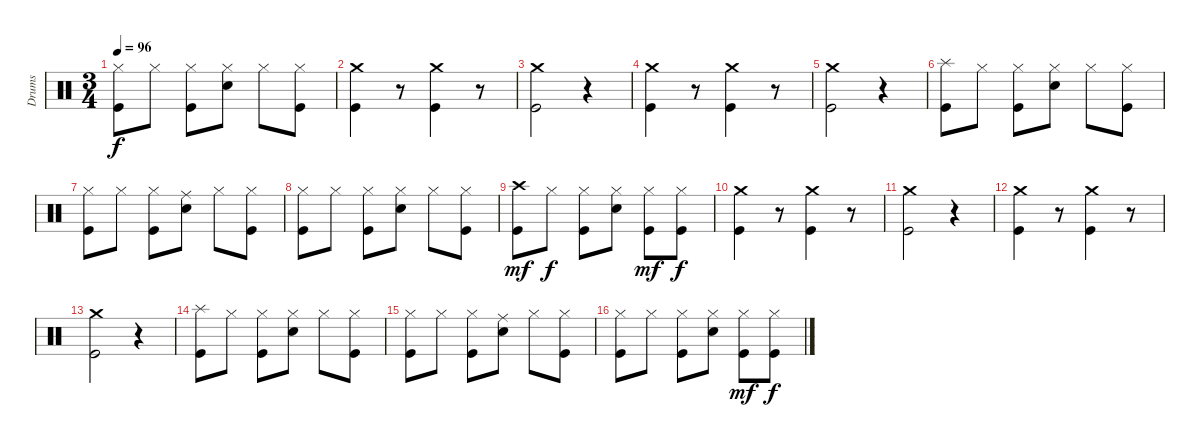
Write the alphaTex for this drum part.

\track ("Drums" "Drums") {instrument percussion}
\staff {score}
\articulation defaults
\ts (3 4)
\tempo 96
\clef neutral
\ks c
("Hi-Hat (closed)" "Kick (hit)").8{dy f} "Hi-Hat (closed)".8 ("Hi-Hat (closed)" "Kick (hit)").8 ("Hi-Hat (closed)" "Snare (hit) 2").8 "Hi-Hat (closed)".8 ("Hi-Hat (closed)" "Kick (hit)").8 |
("Crash medium (hit)" "Kick (hit)").4 r.8 ("Crash medium (hit)" "Kick (hit)").4 r.8 |
("Crash medium (hit)" "Kick (hit)").2 r.4 |
("Crash medium (hit)" "Kick (hit)").4 r.8 ("Crash medium (hit)" "Kick (hit)").4 r.8 |
("Crash medium (hit)" "Kick (hit)").2 r.4 |
("Splash (hit)" "Kick (hit)").8 "Hi-Hat (closed)".8 ("Hi-Hat (closed)" "Kick (hit)").8 ("Hi-Hat (closed)" "Snare (hit) 2").8 "Hi-Hat (closed)".8 ("Hi-Hat (closed)" "Kick (hit)").8 |
("Hi-Hat (closed)" "Kick (hit)").8 "Hi-Hat (closed)".8 ("Hi-Hat (closed)" "Kick (hit)").8 ("Ride (middle)" "Snare (hit) 2").8 "Hi-Hat (closed)".8 ("Hi-Hat (closed)" "Kick (hit)").8 |
("Hi-Hat (closed)" "Kick (hit)").8 "Hi-Hat (closed)".8 ("Hi-Hat (closed)" "Kick (hit)").8 ("Hi-Hat (closed)" "Snare (hit) 2").8 "Hi-Hat (closed)".8 ("Hi-Hat (closed)" "Kick (hit)").8 |
("Crash high (hit)" "Kick (hit)").8{dy mf} "Hi-Hat (closed)".8{dy f} ("Hi-Hat (closed)" "Kick (hit)").8 ("Hi-Hat (closed)" "Snare (hit) 2").8 ("Hi-Hat (closed)" "Kick (hit)").8{dy mf} ("Hi-Hat (closed)" "Kick (hit)").8{dy f} |
("Crash medium (hit)" "Kick (hit)").4 r.8 ("Crash medium (hit)" "Kick (hit)").4 r.8 |
("Crash medium (hit)" "Kick (hit)").2 r.4 |
("Crash medium (hit)" "Kick (hit)").4 r.8 ("Crash medium (hit)" "Kick (hit)").4 r.8 |
("Crash medium (hit)" "Kick (hit)").2 r.4 |
("Splash (hit)" "Kick (hit)").8 "Hi-Hat (closed)".8 ("Hi-Hat (closed)" "Kick (hit)").8 ("Hi-Hat (closed)" "Snare (hit) 2").8 "Hi-Hat (closed)".8 ("Hi-Hat (closed)" "Kick (hit)").8 |
("Hi-Hat (closed)" "Kick (hit)").8 "Hi-Hat (closed)".8 ("Hi-Hat (closed)" "Kick (hit)").8 ("Ride (middle)" "Snare (hit) 2").8 "Hi-Hat (closed)".8 ("Hi-Hat (closed)" "Kick (hit)").8 |
("Hi-Hat (closed)" "Kick (hit)").8 "Hi-Hat (closed)".8 ("Hi-Hat (closed)" "Kick (hit)").8 ("Hi-Hat (closed)" "Snare (hit) 2").8 ("Hi-Hat (closed)" "Kick (hit)").8{dy mf} ("Hi-Hat (closed)" "Kick (hit)").8{dy f}
